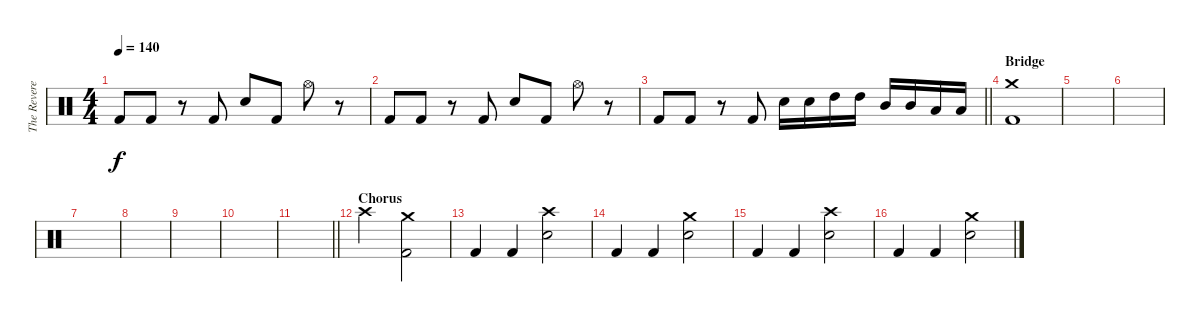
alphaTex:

\track ("The Reverend" "The Revere") {instrument percussion}
\staff {score}
\articulation defaults
\ts (4 4)
\tempo 140
\clef neutral
\ks c "Kick (hit) 2".8{dy f} "Kick (hit) 2".8
r.8 "Kick (hit) 2".8 "Snare (hit) 2".8 "Kick (hit) 2".8 "Hi-Hat (open)".8 r.8 |
"Kick (hit) 2".8 "Kick (hit) 2".8 r.8 "Kick (hit) 2".8 "Snare (hit) 2".8 "Kick (hit) 2".8 "Hi-Hat (open)".8 r.8 |
\barLineRight lightlight "Kick (hit) 2".8 "Kick (hit) 2".8
r.8 "Kick (hit) 2".8 "Snare (hit) 2".16 "Snare (hit) 2".16 "High Tom (hit)".16 "High Tom (hit)".16 "Mid Tom (hit)".16 "Mid Tom (hit)".16 "Low Tom (hit)".16 "Low Tom (hit)".16 |
\section ("" "Bridge")
("Crash medium (hit)" "Kick (hit) 2").1 |
|
|
|
|
|
|
\barLineRight lightlight
|
\section ("" "Chorus")
"Crash high (hit)".2 ("Crash medium (hit)" "Kick (hit) 2").2 |
"Kick (hit) 2".4 "Kick (hit) 2".4 ("Crash high (hit)" "Snare (hit) 2").2 |
"Kick (hit) 2".4 "Kick (hit) 2".4 ("Crash medium (hit)" "Snare (hit) 2").2 |
"Kick (hit) 2".4 "Kick (hit) 2".4 ("Crash high (hit)" "Snare (hit) 2").2 |
"Kick (hit) 2".4 "Kick (hit) 2".4 ("Crash medium (hit)" "Snare (hit) 2").2
